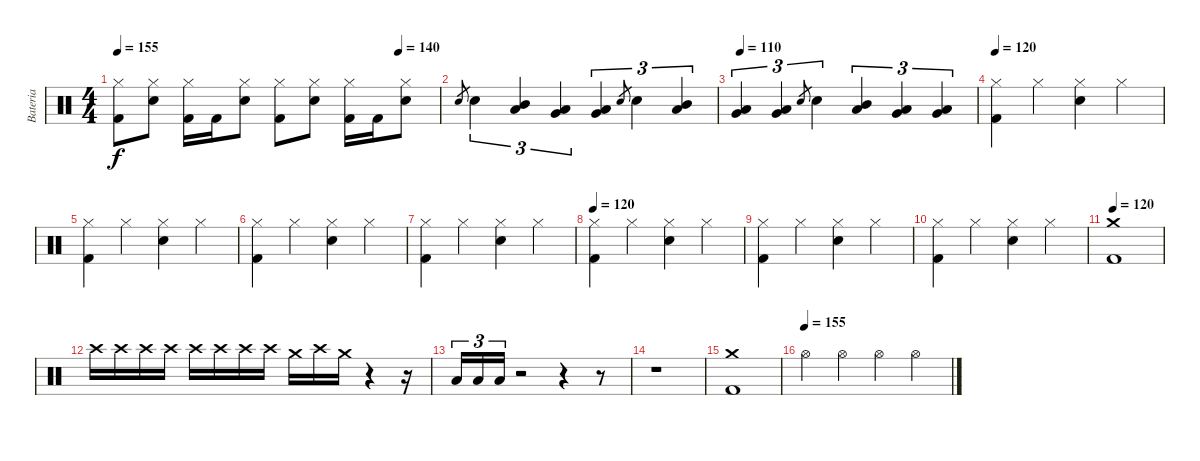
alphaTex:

\track ("Bateria" "Bateria") {instrument percussion}
\staff {score}
\articulation defaults
\ts (4 4)
\tempo 155
\tempo (140 0.875)
\clef neutral
\ks c
("Kick (hit) 2" "Hi-Hat (closed)").8{dy f} ("Electric Snare (hit)" "Hi-Hat (closed)").8 ("Kick (hit) 2" "Hi-Hat (closed)").16 "Kick (hit) 2".16 ("Electric Snare (hit)" "Hi-Hat (closed)").8 ("Kick (hit) 2" "Hi-Hat (closed)").8 ("Electric Snare (hit)" "Hi-Hat (closed)").8 ("Kick (hit) 2" "Hi-Hat (closed)").16 "Kick (hit) 2".16 ("Electric Snare (hit)" "Hi-Hat (closed)").8 |
"Electric Snare (hit)".8{gr} "Electric Snare (hit)".4{tu (3 2)} ("Mid Tom (hit)" "Low Tom (hit)").4{tu (3 2)} ("Low Tom (hit)" "Very Low Tom (hit)").4{tu (3 2)} ("Very Low Tom (hit)" "Low Floor Tom (hit)").4{tu (3 2)} "Electric Snare (hit)".8{gr} "Electric Snare (hit)".4{tu (3 2)} ("Mid Tom (hit)" "Low Tom (hit)").4{tu (3 2)} |
\tempo 110
("Low Tom (hit)" "Very Low Tom (hit)").4{tu (3 2)} ("Very Low Tom (hit)" "Low Floor Tom (hit)").4{tu (3 2)} "Electric Snare (hit)".8{gr} "Electric Snare (hit)".4{tu (3 2)} ("Mid Tom (hit)" "Low Tom (hit)").4{tu (3 2)} ("Low Tom (hit)" "Very Low Tom (hit)").4{tu (3 2)} ("Very Low Tom (hit)" "Low Floor Tom (hit)").4{tu (3 2)} |
\tempo 120
("Hi-Hat (closed)" "Kick (hit) 2").4 "Hi-Hat (closed)".4 ("Hi-Hat (closed)" "Electric Snare (hit)").4 "Hi-Hat (closed)".4 |
("Hi-Hat (closed)" "Kick (hit) 2").4 "Hi-Hat (closed)".4 ("Hi-Hat (closed)" "Electric Snare (hit)").4 "Hi-Hat (closed)".4 |
("Hi-Hat (closed)" "Kick (hit) 2").4 "Hi-Hat (closed)".4 ("Hi-Hat (closed)" "Electric Snare (hit)").4 "Hi-Hat (closed)".4 |
("Hi-Hat (closed)" "Kick (hit) 2").4 "Hi-Hat (closed)".4 ("Hi-Hat (closed)" "Electric Snare (hit)").4 "Hi-Hat (closed)".4 |
\tempo 120
("Hi-Hat (closed)" "Kick (hit) 2").4 "Hi-Hat (closed)".4 ("Hi-Hat (closed)" "Electric Snare (hit)").4 "Hi-Hat (closed)".4 |
("Hi-Hat (closed)" "Kick (hit) 2").4 "Hi-Hat (closed)".4 ("Hi-Hat (closed)" "Electric Snare (hit)").4 "Hi-Hat (closed)".4 |
("Hi-Hat (closed)" "Kick (hit) 2").4 "Hi-Hat (closed)".4 ("Hi-Hat (closed)" "Electric Snare (hit)").4 "Hi-Hat (closed)".4 |
\tempo 120
("Kick (hit) 2" "Crash medium (hit)").1 |
"Crash high (hit)".16 "Crash high (hit)".16 "Crash high (hit)".16 "Crash high (hit)".16 "Crash high (hit)".16 "Crash high (hit)".16 "Crash high (hit)".16 "Crash high (hit)".16 "Crash medium (hit)".16 "Crash high (hit)".16 "Crash medium (hit)".16 r.4 r.16 |
"Low Tom (hit)".16{tu (3 2)} "Low Tom (hit)".16{tu (3 2)} "Low Tom (hit)".16{tu (3 2)} r.2 r.4 r.8 |
r.1 |
("Kick (hit) 2" "Crash medium (hit)").1 |
\tempo (155)
"Hi-Hat (open)".4 "Hi-Hat (open)".4 "Hi-Hat (open)".4 "Hi-Hat (open)".4
